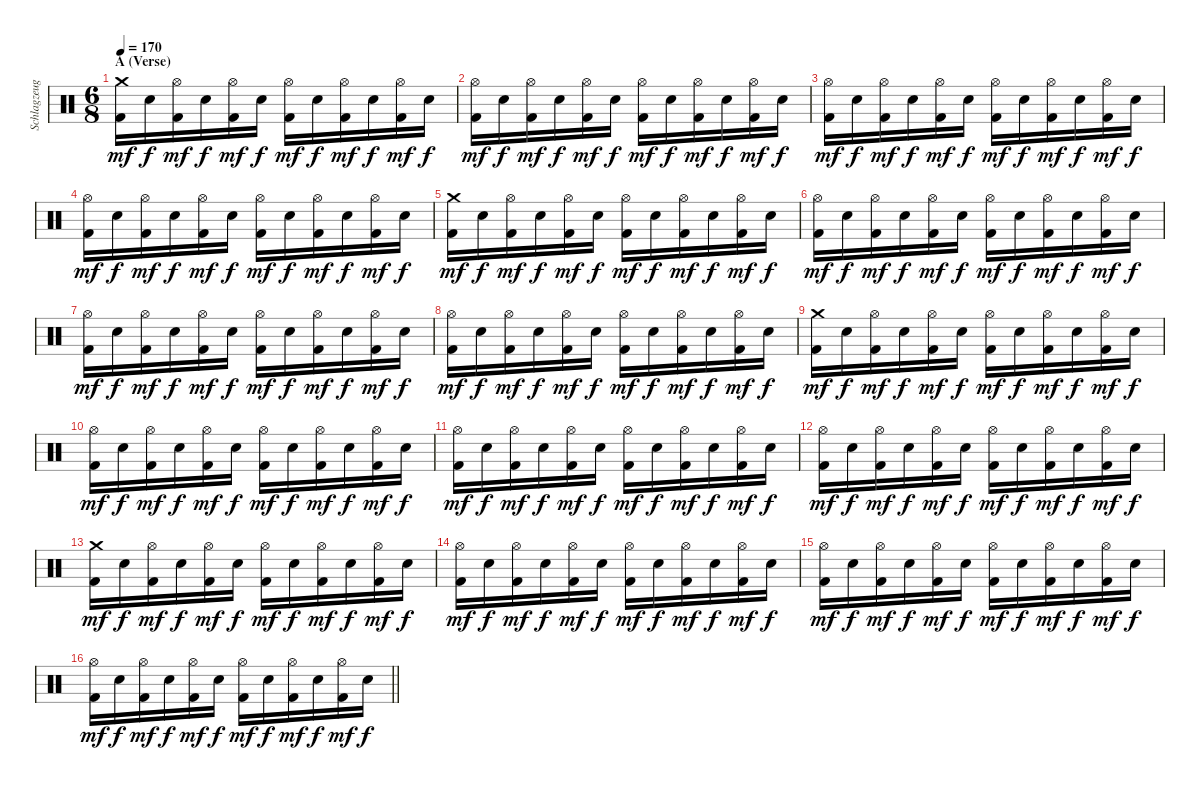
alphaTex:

\track ("Schlagzeug" "Schlagzeug") {instrument percussion}
\staff {score}
\articulation defaults
\ts (6 8)
\section ("" "A (Verse)")
\tempo 170
\clef neutral
\ks c
("Crash medium (hit)" "Kick (hit) 2").16{dy mf} "Electric Snare (hit)".16{dy f} ("Hi-Hat (open)" "Kick (hit) 2").16{dy mf} "Electric Snare (hit)".16{dy f} ("Hi-Hat (open)" "Kick (hit) 2").16{dy mf} "Electric Snare (hit)".16{dy f} ("Hi-Hat (open)" "Kick (hit) 2").16{dy mf} "Electric Snare (hit)".16{dy f} ("Hi-Hat (open)" "Kick (hit) 2").16{dy mf} "Electric Snare (hit)".16{dy f} ("Hi-Hat (open)" "Kick (hit) 2").16{dy mf} "Electric Snare (hit)".16{dy f} |
("Hi-Hat (open)" "Kick (hit) 2").16{dy mf} "Electric Snare (hit)".16{dy f} ("Hi-Hat (open)" "Kick (hit) 2").16{dy mf} "Electric Snare (hit)".16{dy f} ("Hi-Hat (open)" "Kick (hit) 2").16{dy mf} "Electric Snare (hit)".16{dy f} ("Hi-Hat (open)" "Kick (hit) 2").16{dy mf} "Electric Snare (hit)".16{dy f} ("Hi-Hat (open)" "Kick (hit) 2").16{dy mf} "Electric Snare (hit)".16{dy f} ("Hi-Hat (open)" "Kick (hit) 2").16{dy mf} "Electric Snare (hit)".16{dy f} |
("Hi-Hat (open)" "Kick (hit) 2").16{dy mf} "Electric Snare (hit)".16{dy f} ("Hi-Hat (open)" "Kick (hit) 2").16{dy mf} "Electric Snare (hit)".16{dy f} ("Hi-Hat (open)" "Kick (hit) 2").16{dy mf} "Electric Snare (hit)".16{dy f} ("Hi-Hat (open)" "Kick (hit) 2").16{dy mf} "Electric Snare (hit)".16{dy f} ("Hi-Hat (open)" "Kick (hit) 2").16{dy mf} "Electric Snare (hit)".16{dy f} ("Hi-Hat (open)" "Kick (hit) 2").16{dy mf} "Electric Snare (hit)".16{dy f} |
("Hi-Hat (open)" "Kick (hit) 2").16{dy mf} "Electric Snare (hit)".16{dy f} ("Hi-Hat (open)" "Kick (hit) 2").16{dy mf} "Electric Snare (hit)".16{dy f} ("Hi-Hat (open)" "Kick (hit) 2").16{dy mf} "Electric Snare (hit)".16{dy f} ("Hi-Hat (open)" "Kick (hit) 2").16{dy mf} "Electric Snare (hit)".16{dy f} ("Hi-Hat (open)" "Kick (hit) 2").16{dy mf} "Electric Snare (hit)".16{dy f} ("Hi-Hat (open)" "Kick (hit) 2").16{dy mf} "Electric Snare (hit)".16{dy f} |
("Crash medium (hit)" "Kick (hit) 2").16{dy mf} "Electric Snare (hit)".16{dy f} ("Hi-Hat (open)" "Kick (hit) 2").16{dy mf} "Electric Snare (hit)".16{dy f} ("Hi-Hat (open)" "Kick (hit) 2").16{dy mf} "Electric Snare (hit)".16{dy f} ("Hi-Hat (open)" "Kick (hit) 2").16{dy mf} "Electric Snare (hit)".16{dy f} ("Hi-Hat (open)" "Kick (hit) 2").16{dy mf} "Electric Snare (hit)".16{dy f} ("Hi-Hat (open)" "Kick (hit) 2").16{dy mf} "Electric Snare (hit)".16{dy f} |
("Hi-Hat (open)" "Kick (hit) 2").16{dy mf} "Electric Snare (hit)".16{dy f} ("Hi-Hat (open)" "Kick (hit) 2").16{dy mf} "Electric Snare (hit)".16{dy f} ("Hi-Hat (open)" "Kick (hit) 2").16{dy mf} "Electric Snare (hit)".16{dy f} ("Hi-Hat (open)" "Kick (hit) 2").16{dy mf} "Electric Snare (hit)".16{dy f} ("Hi-Hat (open)" "Kick (hit) 2").16{dy mf} "Electric Snare (hit)".16{dy f} ("Hi-Hat (open)" "Kick (hit) 2").16{dy mf} "Electric Snare (hit)".16{dy f} |
("Hi-Hat (open)" "Kick (hit) 2").16{dy mf} "Electric Snare (hit)".16{dy f} ("Hi-Hat (open)" "Kick (hit) 2").16{dy mf} "Electric Snare (hit)".16{dy f} ("Hi-Hat (open)" "Kick (hit) 2").16{dy mf} "Electric Snare (hit)".16{dy f} ("Hi-Hat (open)" "Kick (hit) 2").16{dy mf} "Electric Snare (hit)".16{dy f} ("Hi-Hat (open)" "Kick (hit) 2").16{dy mf} "Electric Snare (hit)".16{dy f} ("Hi-Hat (open)" "Kick (hit) 2").16{dy mf} "Electric Snare (hit)".16{dy f} |
("Hi-Hat (open)" "Kick (hit) 2").16{dy mf} "Electric Snare (hit)".16{dy f} ("Hi-Hat (open)" "Kick (hit) 2").16{dy mf} "Electric Snare (hit)".16{dy f} ("Hi-Hat (open)" "Kick (hit) 2").16{dy mf} "Electric Snare (hit)".16{dy f} ("Hi-Hat (open)" "Kick (hit) 2").16{dy mf} "Electric Snare (hit)".16{dy f} ("Hi-Hat (open)" "Kick (hit) 2").16{dy mf} "Electric Snare (hit)".16{dy f} ("Hi-Hat (open)" "Kick (hit) 2").16{dy mf} "Electric Snare (hit)".16{dy f} |
("Crash medium (hit)" "Kick (hit) 2").16{dy mf} "Electric Snare (hit)".16{dy f} ("Hi-Hat (open)" "Kick (hit) 2").16{dy mf} "Electric Snare (hit)".16{dy f} ("Hi-Hat (open)" "Kick (hit) 2").16{dy mf} "Electric Snare (hit)".16{dy f} ("Hi-Hat (open)" "Kick (hit) 2").16{dy mf} "Electric Snare (hit)".16{dy f} ("Hi-Hat (open)" "Kick (hit) 2").16{dy mf} "Electric Snare (hit)".16{dy f} ("Hi-Hat (open)" "Kick (hit) 2").16{dy mf} "Electric Snare (hit)".16{dy f} |
("Hi-Hat (open)" "Kick (hit) 2").16{dy mf} "Electric Snare (hit)".16{dy f} ("Hi-Hat (open)" "Kick (hit) 2").16{dy mf} "Electric Snare (hit)".16{dy f} ("Hi-Hat (open)" "Kick (hit) 2").16{dy mf} "Electric Snare (hit)".16{dy f} ("Hi-Hat (open)" "Kick (hit) 2").16{dy mf} "Electric Snare (hit)".16{dy f} ("Hi-Hat (open)" "Kick (hit) 2").16{dy mf} "Electric Snare (hit)".16{dy f} ("Hi-Hat (open)" "Kick (hit) 2").16{dy mf} "Electric Snare (hit)".16{dy f} |
("Hi-Hat (open)" "Kick (hit) 2").16{dy mf} "Electric Snare (hit)".16{dy f} ("Hi-Hat (open)" "Kick (hit) 2").16{dy mf} "Electric Snare (hit)".16{dy f} ("Hi-Hat (open)" "Kick (hit) 2").16{dy mf} "Electric Snare (hit)".16{dy f} ("Hi-Hat (open)" "Kick (hit) 2").16{dy mf} "Electric Snare (hit)".16{dy f} ("Hi-Hat (open)" "Kick (hit) 2").16{dy mf} "Electric Snare (hit)".16{dy f} ("Hi-Hat (open)" "Kick (hit) 2").16{dy mf} "Electric Snare (hit)".16{dy f} |
("Hi-Hat (open)" "Kick (hit) 2").16{dy mf} "Electric Snare (hit)".16{dy f} ("Hi-Hat (open)" "Kick (hit) 2").16{dy mf} "Electric Snare (hit)".16{dy f} ("Hi-Hat (open)" "Kick (hit) 2").16{dy mf} "Electric Snare (hit)".16{dy f} ("Hi-Hat (open)" "Kick (hit) 2").16{dy mf} "Electric Snare (hit)".16{dy f} ("Hi-Hat (open)" "Kick (hit) 2").16{dy mf} "Electric Snare (hit)".16{dy f} ("Hi-Hat (open)" "Kick (hit) 2").16{dy mf} "Electric Snare (hit)".16{dy f} |
("Crash medium (hit)" "Kick (hit) 2").16{dy mf} "Electric Snare (hit)".16{dy f} ("Hi-Hat (open)" "Kick (hit) 2").16{dy mf} "Electric Snare (hit)".16{dy f} ("Hi-Hat (open)" "Kick (hit) 2").16{dy mf} "Electric Snare (hit)".16{dy f} ("Hi-Hat (open)" "Kick (hit) 2").16{dy mf} "Electric Snare (hit)".16{dy f} ("Hi-Hat (open)" "Kick (hit) 2").16{dy mf} "Electric Snare (hit)".16{dy f} ("Hi-Hat (open)" "Kick (hit) 2").16{dy mf} "Electric Snare (hit)".16{dy f} |
("Hi-Hat (open)" "Kick (hit) 2").16{dy mf} "Electric Snare (hit)".16{dy f} ("Hi-Hat (open)" "Kick (hit) 2").16{dy mf} "Electric Snare (hit)".16{dy f} ("Hi-Hat (open)" "Kick (hit) 2").16{dy mf} "Electric Snare (hit)".16{dy f} ("Hi-Hat (open)" "Kick (hit) 2").16{dy mf} "Electric Snare (hit)".16{dy f} ("Hi-Hat (open)" "Kick (hit) 2").16{dy mf} "Electric Snare (hit)".16{dy f} ("Hi-Hat (open)" "Kick (hit) 2").16{dy mf} "Electric Snare (hit)".16{dy f} |
("Hi-Hat (open)" "Kick (hit) 2").16{dy mf} "Electric Snare (hit)".16{dy f} ("Hi-Hat (open)" "Kick (hit) 2").16{dy mf} "Electric Snare (hit)".16{dy f} ("Hi-Hat (open)" "Kick (hit) 2").16{dy mf} "Electric Snare (hit)".16{dy f} ("Hi-Hat (open)" "Kick (hit) 2").16{dy mf} "Electric Snare (hit)".16{dy f} ("Hi-Hat (open)" "Kick (hit) 2").16{dy mf} "Electric Snare (hit)".16{dy f} ("Hi-Hat (open)" "Kick (hit) 2").16{dy mf} "Electric Snare (hit)".16{dy f} |
\barLineRight lightlight
("Hi-Hat (open)" "Kick (hit) 2").16{dy mf} "Electric Snare (hit)".16{dy f} ("Hi-Hat (open)" "Kick (hit) 2").16{dy mf} "Electric Snare (hit)".16{dy f} ("Hi-Hat (open)" "Kick (hit) 2").16{dy mf} "Electric Snare (hit)".16{dy f} ("Hi-Hat (open)" "Kick (hit) 2").16{dy mf} "Electric Snare (hit)".16{dy f} ("Hi-Hat (open)" "Kick (hit) 2").16{dy mf} "Electric Snare (hit)".16{dy f} ("Hi-Hat (open)" "Kick (hit) 2").16{dy mf} "Electric Snare (hit)".16{dy f}
